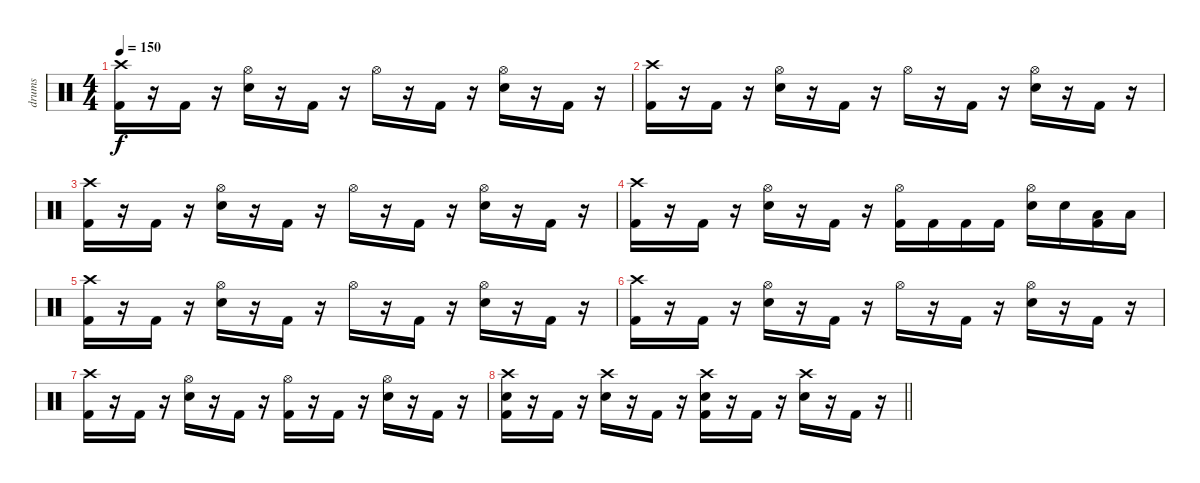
\track ("drums" "drums") {instrument percussion}
\staff {score}
\articulation defaults
\ts (4 4)
\section ("" "")
\tempo 150
\clef neutral
\ks c
("Crash high (hit)" "Kick (hit) 2").16{dy f} r.16 "Kick (hit) 2".16 r.16 ("Hi-Hat (open)" "Snare (hit) 2").16 r.16 "Kick (hit) 2".16 r.16 "Hi-Hat (open)".16 r.16 "Kick (hit) 2".16 r.16 ("Hi-Hat (open)" "Snare (hit) 2").16 r.16 "Kick (hit) 2".16 r.16 |
("Crash high (hit)" "Kick (hit) 2").16 r.16 "Kick (hit) 2".16 r.16 ("Hi-Hat (open)" "Snare (hit) 2").16 r.16 "Kick (hit) 2".16 r.16 "Hi-Hat (open)".16 r.16 "Kick (hit) 2".16 r.16 ("Hi-Hat (open)" "Snare (hit) 2").16 r.16 "Kick (hit) 2".16 r.16 |
("Crash high (hit)" "Kick (hit) 2").16 r.16 "Kick (hit) 2".16 r.16 ("Hi-Hat (open)" "Snare (hit) 2").16 r.16 "Kick (hit) 2".16 r.16 "Hi-Hat (open)".16 r.16 "Kick (hit) 2".16 r.16 ("Hi-Hat (open)" "Snare (hit) 2").16 r.16 "Kick (hit) 2".16 r.16 |
("Crash high (hit)" "Kick (hit) 2").16 r.16 "Kick (hit) 2".16 r.16 ("Hi-Hat (open)" "Snare (hit) 2").16 r.16 "Kick (hit) 2".16 r.16 ("Hi-Hat (open)" "Kick (hit) 2").16 "Kick (hit) 2".16 "Kick (hit) 2".16 "Kick (hit) 2".16 ("Hi-Hat (open)" "Snare (hit) 2").16 "Snare (hit) 2".16 ("Low Tom (hit)" "Kick (hit) 2").16 "Low Tom (hit)".16 |
("Crash high (hit)" "Kick (hit) 2").16 r.16 "Kick (hit) 2".16 r.16 ("Hi-Hat (open)" "Snare (hit) 2").16 r.16 "Kick (hit) 2".16 r.16 "Hi-Hat (open)".16 r.16 "Kick (hit) 2".16 r.16 ("Hi-Hat (open)" "Snare (hit) 2").16 r.16 "Kick (hit) 2".16 r.16 |
("Crash high (hit)" "Kick (hit) 2").16 r.16 "Kick (hit) 2".16 r.16 ("Hi-Hat (open)" "Snare (hit) 2").16 r.16 "Kick (hit) 2".16 r.16 "Hi-Hat (open)".16 r.16 "Kick (hit) 2".16 r.16 ("Hi-Hat (open)" "Snare (hit) 2").16 r.16 "Kick (hit) 2".16 r.16 |
("Crash high (hit)" "Kick (hit) 2").16 r.16 "Kick (hit) 2".16 r.16 ("Hi-Hat (open)" "Snare (hit) 2").16 r.16 "Kick (hit) 2".16 r.16 ("Hi-Hat (open)" "Kick (hit) 2").16 r.16 "Kick (hit) 2".16 r.16 ("Hi-Hat (open)" "Snare (hit) 2").16 r.16 "Kick (hit) 2".16 r.16 |
\barLineRight lightlight
("Crash high (hit)" "Snare (hit) 2" "Kick (hit) 2").16 r.16 "Kick (hit) 2".16 r.16 ("Crash high (hit)" "Snare (hit) 2").16 r.16 "Kick (hit) 2".16 r.16 ("Crash high (hit)" "Snare (hit) 2" "Kick (hit) 2").16 r.16 "Kick (hit) 2".16 r.16 ("Crash high (hit)" "Snare (hit) 2").16 r.16 "Kick (hit) 2".16 r.16
